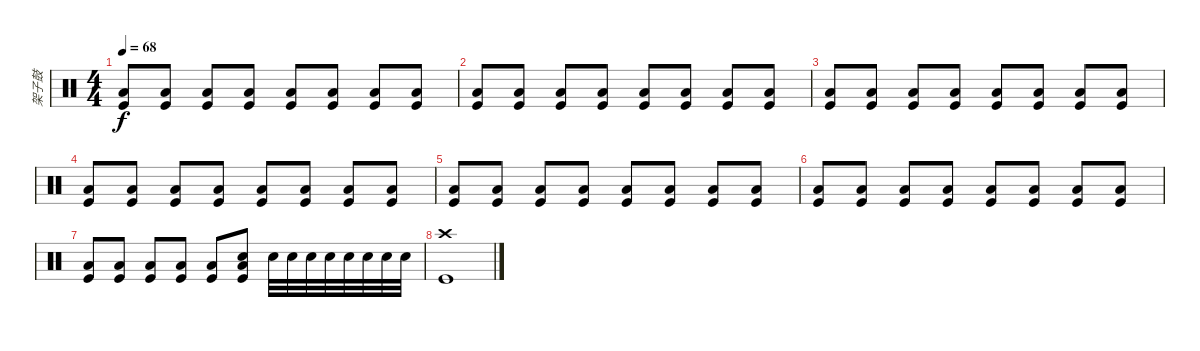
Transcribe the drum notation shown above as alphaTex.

\track ("架子鼓" "架子鼓") {instrument percussion}
\staff {score}
\articulation defaults
\ts (4 4)
\tempo 68
\clef neutral
\ks c
("Low Floor Tom (hit)" "Kick (hit)").8{dy f} ("Low Floor Tom (hit)" "Kick (hit)").8 ("Low Floor Tom (hit)" "Kick (hit)").8 ("Low Floor Tom (hit)" "Kick (hit)").8 ("Low Floor Tom (hit)" "Kick (hit)").8 ("Low Floor Tom (hit)" "Kick (hit)").8 ("Low Floor Tom (hit)" "Kick (hit)").8 ("Low Floor Tom (hit)" "Kick (hit)").8 |
("Low Floor Tom (hit)" "Kick (hit)").8 ("Low Floor Tom (hit)" "Kick (hit)").8 ("Low Floor Tom (hit)" "Kick (hit)").8 ("Low Floor Tom (hit)" "Kick (hit)").8 ("Low Floor Tom (hit)" "Kick (hit)").8 ("Low Floor Tom (hit)" "Kick (hit)").8 ("Low Floor Tom (hit)" "Kick (hit)").8 ("Low Floor Tom (hit)" "Kick (hit)").8 |
("Low Floor Tom (hit)" "Kick (hit)").8 ("Low Floor Tom (hit)" "Kick (hit)").8 ("Low Floor Tom (hit)" "Kick (hit)").8 ("Low Floor Tom (hit)" "Kick (hit)").8 ("Low Floor Tom (hit)" "Kick (hit)").8 ("Low Floor Tom (hit)" "Kick (hit)").8 ("Low Floor Tom (hit)" "Kick (hit)").8 ("Low Floor Tom (hit)" "Kick (hit)").8 |
("Low Floor Tom (hit)" "Kick (hit)").8 ("Low Floor Tom (hit)" "Kick (hit)").8 ("Low Floor Tom (hit)" "Kick (hit)").8 ("Low Floor Tom (hit)" "Kick (hit)").8 ("Low Floor Tom (hit)" "Kick (hit)").8 ("Low Floor Tom (hit)" "Kick (hit)").8 ("Low Floor Tom (hit)" "Kick (hit)").8 ("Low Floor Tom (hit)" "Kick (hit)").8 |
("Low Floor Tom (hit)" "Kick (hit)").8 ("Low Floor Tom (hit)" "Kick (hit)").8 ("Low Floor Tom (hit)" "Kick (hit)").8 ("Low Floor Tom (hit)" "Kick (hit)").8 ("Low Floor Tom (hit)" "Kick (hit)").8 ("Low Floor Tom (hit)" "Kick (hit)").8 ("Low Floor Tom (hit)" "Kick (hit)").8 ("Low Floor Tom (hit)" "Kick (hit)").8 |
("Low Floor Tom (hit)" "Kick (hit)").8 ("Low Floor Tom (hit)" "Kick (hit)").8 ("Low Floor Tom (hit)" "Kick (hit)").8 ("Low Floor Tom (hit)" "Kick (hit)").8 ("Low Floor Tom (hit)" "Kick (hit)").8 ("Low Floor Tom (hit)" "Kick (hit)").8 ("Low Floor Tom (hit)" "Kick (hit)").8 ("Low Floor Tom (hit)" "Kick (hit)").8 |
("Low Floor Tom (hit)" "Kick (hit)").8 ("Low Floor Tom (hit)" "Kick (hit)").8 ("Low Floor Tom (hit)" "Kick (hit)").8 ("Low Floor Tom (hit)" "Kick (hit)").8 ("Low Floor Tom (hit)" "Kick (hit)").8 ("Electric Snare (hit)" "Low Floor Tom (hit)" "Kick (hit)").8 "Electric Snare (hit)".32 "Electric Snare (hit)".32 "Electric Snare (hit)".32 "Electric Snare (hit)".32 "Electric Snare (hit)".32 "Electric Snare (hit)".32 "Electric Snare (hit)".32 "Electric Snare (hit)".32 |
("Crash high (hit)" "Kick (hit)").1
